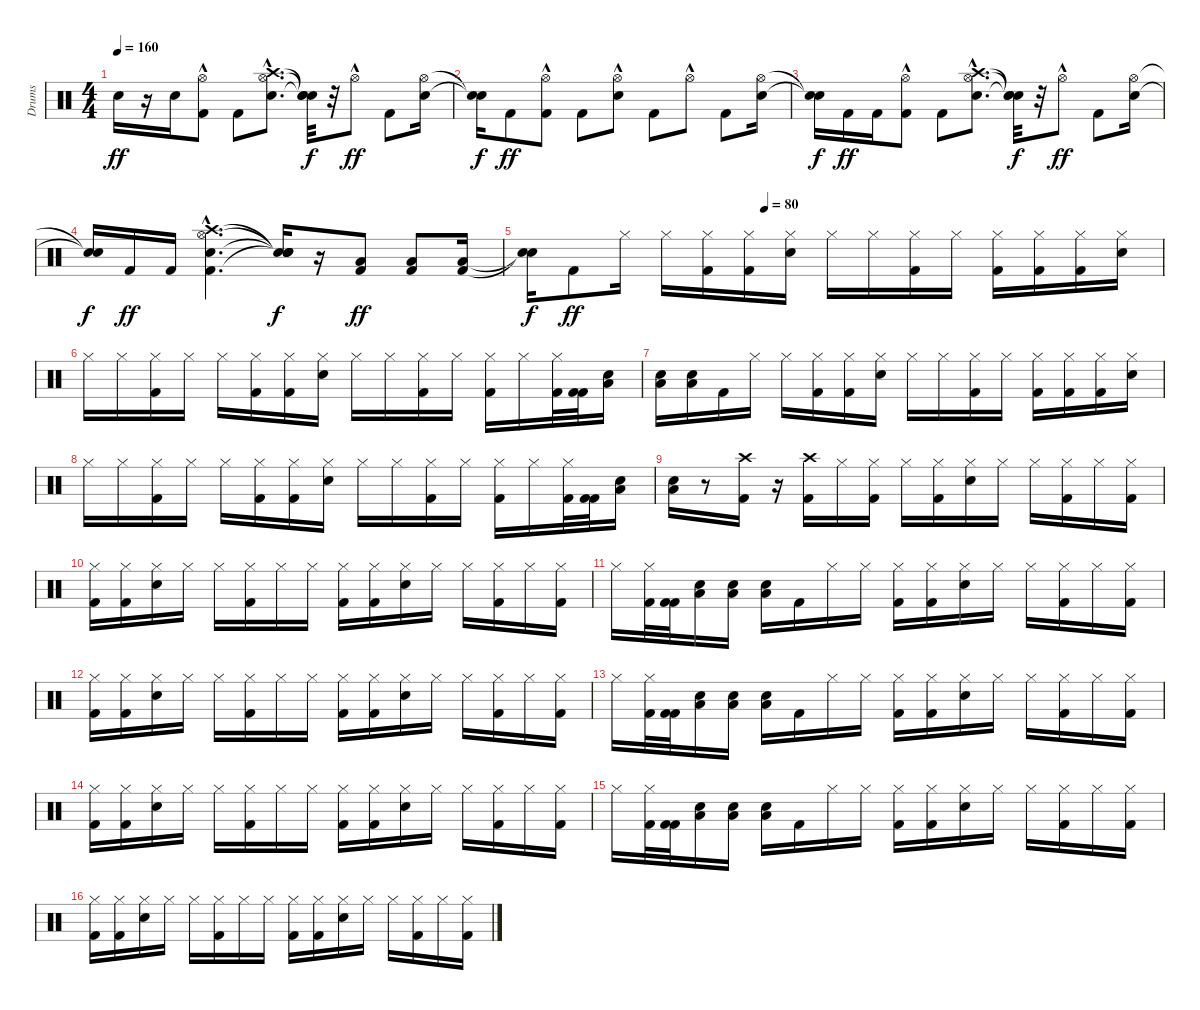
\track ("Drums" "Drums") {instrument percussion}
\staff {score}
\articulation defaults
\ts (4 4)
\tempo 160
\clef neutral
\ks c "Snare (hit) 2".16{dy ff}
r.16 "Snare (hit) 2".16 ("Kick (hit) 2" "Hi-Hat (open)"{hac}).8 "Kick (hit) 2".8 ("Snare (hit) 2"{hac} "Hi-Hat (open)"{hac} "Crash high (hit)"{hac}).8{d} ("Snare (hit)"{t} "Snare (hit)"{t} "Snare (hit)"{t}).32{dy f} r.32 "Hi-Hat (open)"{hac}.8{dy ff} "Kick (hit) 2".8 ("Snare (hit) 2" "Hi-Hat (open)").16 |
("Snare (hit)"{t} "Snare (hit)"{t}).16{dy f} "Kick (hit) 2".8{dy ff} ("Kick (hit) 2" "Hi-Hat (open)"{hac}).8 "Kick (hit) 2".8 ("Snare (hit) 2" "Hi-Hat (open)"{hac}).8 "Kick (hit) 2".8 "Hi-Hat (open)"{hac}.8 "Kick (hit) 2".8 ("Snare (hit) 2" "Hi-Hat (open)").16 |
("Snare (hit)"{t} "Snare (hit)"{t}).16{dy f} "Kick (hit) 2".16{dy ff} "Kick (hit) 2".16 ("Kick (hit) 2" "Hi-Hat (open)"{hac}).8 "Kick (hit) 2".8 ("Snare (hit) 2"{hac} "Hi-Hat (open)"{hac} "Crash high (hit)"{hac}).8{d} ("Snare (hit)"{t} "Snare (hit)"{t} "Snare (hit)"{t}).32{dy f} r.32 "Hi-Hat (open)"{hac}.8{dy ff} "Kick (hit) 2".8 ("Snare (hit) 2" "Hi-Hat (open)").16 |
("Snare (hit)"{t} "Snare (hit)"{t}).16{dy f} "Kick (hit) 2".16{dy ff} "Kick (hit) 2".16 ("Kick (hit) 2"{hac} "Snare (hit) 2"{hac} "Hi-Hat (open)"{hac} "Crash high (hit)"{hac}).4{d} ("Snare (hit)"{t} "Snare (hit)"{t} "Snare (hit)"{t} "Snare (hit)"{t}).16{dy f} r.16 ("Kick (hit) 2" "Low Floor Tom (hit)").8{dy ff} ("Kick (hit) 2" "Low Floor Tom (hit)").8 ("Kick (hit) 2" "Low Floor Tom (hit)").16 |
\tempo (80 0.375)
("Snare (hit)"{t} "Snare (hit)"{t}).16{dy f} "Kick (hit) 2".8{dy ff} "Hi-Hat (closed)".16 "Hi-Hat (closed)".16 ("Kick (hit) 2" "Hi-Hat (closed)").16 ("Kick (hit) 2" "Hi-Hat (closed)").16 ("Snare (hit) 2" "Hi-Hat (closed)").16 "Hi-Hat (closed)".16 "Hi-Hat (closed)".16 ("Kick (hit) 2" "Hi-Hat (closed)").16 "Hi-Hat (closed)".16 ("Kick (hit) 2" "Hi-Hat (closed)").16 ("Kick (hit) 2" "Hi-Hat (closed)").16 ("Kick (hit) 2" "Hi-Hat (closed)").16 ("Snare (hit) 2" "Hi-Hat (closed)").16 |
"Hi-Hat (closed)".16 "Hi-Hat (closed)".16 ("Kick (hit) 2" "Hi-Hat (closed)").16 "Hi-Hat (closed)".16 "Hi-Hat (closed)".16 ("Kick (hit) 2" "Hi-Hat (closed)").16 ("Kick (hit) 2" "Hi-Hat (closed)").16 ("Snare (hit) 2" "Hi-Hat (closed)").16 "Hi-Hat (closed)".16 "Hi-Hat (closed)".16 ("Kick (hit) 2" "Hi-Hat (closed)").16 "Hi-Hat (closed)".16 ("Kick (hit) 2" "Hi-Hat (closed)").16 "Hi-Hat (closed)".16 ("Kick (hit) 2" "Hi-Hat (closed)").32 ("Kick (hit) 2" "Kick (hit) 2").32 ("Snare (hit) 2" "Low Floor Tom (hit)").16 |
("Snare (hit) 2" "Low Floor Tom (hit)").16 ("Snare (hit) 2" "Low Floor Tom (hit)").16 "Kick (hit) 2".16 "Hi-Hat (closed)".16 "Hi-Hat (closed)".16 ("Kick (hit) 2" "Hi-Hat (closed)").16 ("Kick (hit) 2" "Hi-Hat (closed)").16 ("Snare (hit) 2" "Hi-Hat (closed)").16 "Hi-Hat (closed)".16 "Hi-Hat (closed)".16 ("Kick (hit) 2" "Hi-Hat (closed)").16 "Hi-Hat (closed)".16 ("Kick (hit) 2" "Hi-Hat (closed)").16 ("Kick (hit) 2" "Hi-Hat (closed)").16 ("Kick (hit) 2" "Hi-Hat (closed)").16 ("Snare (hit) 2" "Hi-Hat (closed)").16 |
"Hi-Hat (closed)".16 "Hi-Hat (closed)".16 ("Kick (hit) 2" "Hi-Hat (closed)").16 "Hi-Hat (closed)".16 "Hi-Hat (closed)".16 ("Kick (hit) 2" "Hi-Hat (closed)").16 ("Kick (hit) 2" "Hi-Hat (closed)").16 ("Snare (hit) 2" "Hi-Hat (closed)").16 "Hi-Hat (closed)".16 "Hi-Hat (closed)".16 ("Kick (hit) 2" "Hi-Hat (closed)").16 "Hi-Hat (closed)".16 ("Kick (hit) 2" "Hi-Hat (closed)").16 "Hi-Hat (closed)".16 ("Kick (hit) 2" "Hi-Hat (closed)").32 ("Kick (hit) 2" "Kick (hit) 2").32 ("Snare (hit) 2" "Low Floor Tom (hit)").16 |
("Snare (hit) 2" "Low Floor Tom (hit)").16 r.8 ("Kick (hit) 2" "Crash high (hit)").16 r.16 ("Kick (hit) 2" "Crash high (hit)").16 "Hi-Hat (closed)".16 ("Kick (hit) 2" "Hi-Hat (closed)").16 "Hi-Hat (closed)".16 ("Kick (hit) 2" "Hi-Hat (closed)").16 ("Snare (hit) 2" "Hi-Hat (closed)").16 "Hi-Hat (closed)".16 "Hi-Hat (closed)".16 ("Kick (hit) 2" "Hi-Hat (closed)").16 "Hi-Hat (closed)".16 ("Kick (hit) 2" "Hi-Hat (closed)").16 |
("Kick (hit) 2" "Hi-Hat (closed)").16 ("Kick (hit) 2" "Hi-Hat (closed)").16 ("Snare (hit) 2" "Hi-Hat (closed)").16 "Hi-Hat (closed)".16 "Hi-Hat (closed)".16 ("Kick (hit) 2" "Hi-Hat (closed)").16 "Hi-Hat (closed)".16 "Hi-Hat (closed)".16 ("Kick (hit) 2" "Hi-Hat (closed)").16 ("Kick (hit) 2" "Hi-Hat (closed)").16 ("Snare (hit) 2" "Hi-Hat (closed)").16 "Hi-Hat (closed)".16 "Hi-Hat (closed)".16 ("Kick (hit) 2" "Hi-Hat (closed)").16 "Hi-Hat (closed)".16 ("Kick (hit) 2" "Hi-Hat (closed)").16 |
"Hi-Hat (closed)".16 ("Kick (hit) 2" "Hi-Hat (closed)").32 ("Kick (hit) 2" "Kick (hit) 2").32 ("Snare (hit) 2" "Low Floor Tom (hit)").16 ("Snare (hit) 2" "Low Floor Tom (hit)").16 ("Snare (hit) 2" "Low Floor Tom (hit)").16 "Kick (hit) 2".16 "Hi-Hat (closed)".16 "Hi-Hat (closed)".16 ("Kick (hit) 2" "Hi-Hat (closed)").16 ("Kick (hit) 2" "Hi-Hat (closed)").16 ("Snare (hit) 2" "Hi-Hat (closed)").16 "Hi-Hat (closed)".16 "Hi-Hat (closed)".16 ("Kick (hit) 2" "Hi-Hat (closed)").16 "Hi-Hat (closed)".16 ("Kick (hit) 2" "Hi-Hat (closed)").16 |
("Kick (hit) 2" "Hi-Hat (closed)").16 ("Kick (hit) 2" "Hi-Hat (closed)").16 ("Snare (hit) 2" "Hi-Hat (closed)").16 "Hi-Hat (closed)".16 "Hi-Hat (closed)".16 ("Kick (hit) 2" "Hi-Hat (closed)").16 "Hi-Hat (closed)".16 "Hi-Hat (closed)".16 ("Kick (hit) 2" "Hi-Hat (closed)").16 ("Kick (hit) 2" "Hi-Hat (closed)").16 ("Snare (hit) 2" "Hi-Hat (closed)").16 "Hi-Hat (closed)".16 "Hi-Hat (closed)".16 ("Kick (hit) 2" "Hi-Hat (closed)").16 "Hi-Hat (closed)".16 ("Kick (hit) 2" "Hi-Hat (closed)").16 |
"Hi-Hat (closed)".16 ("Kick (hit) 2" "Hi-Hat (closed)").32 ("Kick (hit) 2" "Kick (hit) 2").32 ("Snare (hit) 2" "Low Floor Tom (hit)").16 ("Snare (hit) 2" "Low Floor Tom (hit)").16 ("Snare (hit) 2" "Low Floor Tom (hit)").16 "Kick (hit) 2".16 "Hi-Hat (closed)".16 "Hi-Hat (closed)".16 ("Kick (hit) 2" "Hi-Hat (closed)").16 ("Kick (hit) 2" "Hi-Hat (closed)").16 ("Snare (hit) 2" "Hi-Hat (closed)").16 "Hi-Hat (closed)".16 "Hi-Hat (closed)".16 ("Kick (hit) 2" "Hi-Hat (closed)").16 "Hi-Hat (closed)".16 ("Kick (hit) 2" "Hi-Hat (closed)").16 |
("Kick (hit) 2" "Hi-Hat (closed)").16 ("Kick (hit) 2" "Hi-Hat (closed)").16 ("Snare (hit) 2" "Hi-Hat (closed)").16 "Hi-Hat (closed)".16 "Hi-Hat (closed)".16 ("Kick (hit) 2" "Hi-Hat (closed)").16 "Hi-Hat (closed)".16 "Hi-Hat (closed)".16 ("Kick (hit) 2" "Hi-Hat (closed)").16 ("Kick (hit) 2" "Hi-Hat (closed)").16 ("Snare (hit) 2" "Hi-Hat (closed)").16 "Hi-Hat (closed)".16 "Hi-Hat (closed)".16 ("Kick (hit) 2" "Hi-Hat (closed)").16 "Hi-Hat (closed)".16 ("Kick (hit) 2" "Hi-Hat (closed)").16 |
"Hi-Hat (closed)".16 ("Kick (hit) 2" "Hi-Hat (closed)").32 ("Kick (hit) 2" "Kick (hit) 2").32 ("Snare (hit) 2" "Low Floor Tom (hit)").16 ("Snare (hit) 2" "Low Floor Tom (hit)").16 ("Snare (hit) 2" "Low Floor Tom (hit)").16 "Kick (hit) 2".16 "Hi-Hat (closed)".16 "Hi-Hat (closed)".16 ("Kick (hit) 2" "Hi-Hat (closed)").16 ("Kick (hit) 2" "Hi-Hat (closed)").16 ("Snare (hit) 2" "Hi-Hat (closed)").16 "Hi-Hat (closed)".16 "Hi-Hat (closed)".16 ("Kick (hit) 2" "Hi-Hat (closed)").16 "Hi-Hat (closed)".16 ("Kick (hit) 2" "Hi-Hat (closed)").16 |
("Kick (hit) 2" "Hi-Hat (closed)").16 ("Kick (hit) 2" "Hi-Hat (closed)").16 ("Snare (hit) 2" "Hi-Hat (closed)").16 "Hi-Hat (closed)".16 "Hi-Hat (closed)".16 ("Kick (hit) 2" "Hi-Hat (closed)").16 "Hi-Hat (closed)".16 "Hi-Hat (closed)".16 ("Kick (hit) 2" "Hi-Hat (closed)").16 ("Kick (hit) 2" "Hi-Hat (closed)").16 ("Snare (hit) 2" "Hi-Hat (closed)").16 "Hi-Hat (closed)".16 "Hi-Hat (closed)".16 ("Kick (hit) 2" "Hi-Hat (closed)").16 "Hi-Hat (closed)".16 ("Kick (hit) 2" "Hi-Hat (closed)").16
